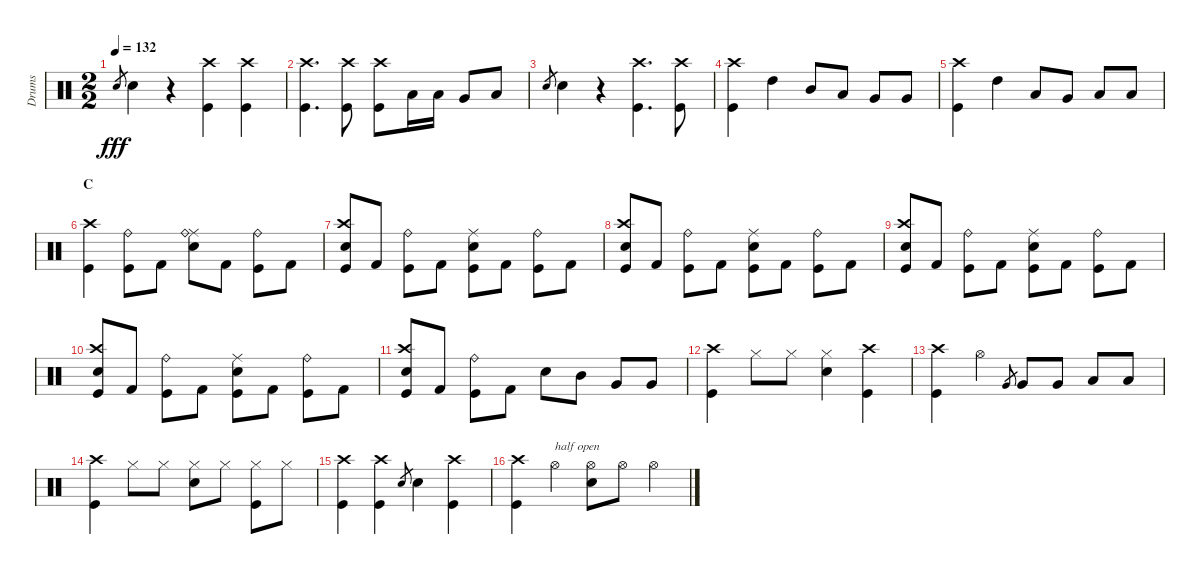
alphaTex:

\track ("Drums" "Drums") {instrument percussion}
\staff {score}
\articulation defaults
\ts (2 2)
\tempo 132
\clef neutral
\ks c "Snare (hit) 2".8{gr dy fff} "Snare (hit) 2".4
r.4 ("Crash high (hit)" "Kick (hit)").4 ("Crash high (hit)" "Kick (hit)").4 |
("Crash high (hit)" "Kick (hit)").4{d} ("Crash high (hit)" "Kick (hit)").8 ("Crash high (hit)" "Kick (hit)").8 "Low Floor Tom (hit)".16 "Low Floor Tom (hit)".16 "Very Low Tom (hit)".8 "Low Floor Tom (hit)".8 |
"Snare (hit) 2".8{gr} "Snare (hit) 2".4 r.4 ("Crash high (hit)" "Kick (hit)").4{d} ("Crash high (hit)" "Kick (hit)").8 |
("Crash high (hit)" "Kick (hit)").4 "High Tom (hit)".4 "Mid Tom (hit)".8 "Low Tom (hit)".8 "Very Low Tom (hit)".8 "Very Low Tom (hit)".8 |
("Crash high (hit)" "Kick (hit)").4 "High Tom (hit)".4 "Low Tom (hit)".8 "Very Low Tom (hit)".8 "Low Floor Tom (hit)".8 "Low Floor Tom (hit)".8 |
\section ("" "C")
("Crash high (hit)" "Kick (hit)").4 ("Ride (bell)" "Kick (hit)").8 "Kick (hit) 2".8 ("Ride (middle)" "Snare (hit) 2" "Ride (bell)").8 "Kick (hit) 2".8 ("Ride (bell)" "Kick (hit)").8 "Kick (hit) 2".8 |
("Crash high (hit)" "Snare (hit) 2" "Kick (hit)").8 "Kick (hit) 2".8 ("Ride (bell)" "Kick (hit)").8 "Kick (hit) 2".8 ("Ride (middle)" "Snare (hit) 2" "Kick (hit)").8 "Kick (hit) 2".8 ("Ride (bell)" "Kick (hit)").8 "Kick (hit) 2".8 |
("Crash high (hit)" "Snare (hit) 2" "Kick (hit)").8 "Kick (hit) 2".8 ("Ride (bell)" "Kick (hit)").8 "Kick (hit) 2".8 ("Ride (middle)" "Snare (hit) 2" "Kick (hit)").8 "Kick (hit) 2".8 ("Ride (bell)" "Kick (hit)").8 "Kick (hit) 2".8 |
("Crash high (hit)" "Snare (hit) 2" "Kick (hit)").8 "Kick (hit) 2".8 ("Ride (bell)" "Kick (hit)").8 "Kick (hit) 2".8 ("Ride (middle)" "Snare (hit) 2" "Kick (hit)").8 "Kick (hit) 2".8 ("Ride (bell)" "Kick (hit)").8 "Kick (hit) 2".8 |
("Crash high (hit)" "Snare (hit) 2" "Kick (hit)").8 "Kick (hit) 2".8 ("Ride (bell)" "Kick (hit)").8 "Kick (hit) 2".8 ("Ride (middle)" "Snare (hit) 2" "Kick (hit)").8 "Kick (hit) 2".8 ("Ride (bell)" "Kick (hit)").8 "Kick (hit) 2".8 |
("Crash high (hit)" "Snare (hit) 2" "Kick (hit)").8 "Kick (hit) 2".8 ("Ride (bell)" "Kick (hit)").8 "Kick (hit) 2".8 "Snare (hit) 2".8 "Mid Tom (hit)".8 "Very Low Tom (hit)".8 "Very Low Tom (hit)".8 |
("Crash high (hit)" "Kick (hit)").4 "Hi-Hat (closed)".8 "Hi-Hat (closed)".8 ("Hi-Hat (closed)" "Snare (hit) 2").4 ("Crash high (hit)" "Kick (hit)").4 |
("Crash high (hit)" "Kick (hit)").4 "Hi-Hat (open)".4 "Very Low Tom (hit)".8{gr} "Very Low Tom (hit)".8 "Very Low Tom (hit)".8 "Low Floor Tom (hit)".8 "Low Floor Tom (hit)".8 |
("Crash high (hit)" "Kick (hit)").4 "Hi-Hat (closed)".8 "Hi-Hat (closed)".8 ("Hi-Hat (closed)" "Snare (hit) 2").8 "Hi-Hat (closed)".8 ("Hi-Hat (closed)" "Kick (hit)").8 "Hi-Hat (closed)".8 |
("Crash high (hit)" "Kick (hit)").4 ("Crash high (hit)" "Kick (hit)").4 "Snare (hit) 2".8{gr} "Snare (hit) 2".4 ("Crash high (hit)" "Kick (hit)").4 |
("Crash high (hit)" "Kick (hit)").4 "Hi-Hat (open)".4{txt "half open"} ("Hi-Hat (open)" "Snare (hit) 2").8 "Hi-Hat (open)".8 "Hi-Hat (open)".4
